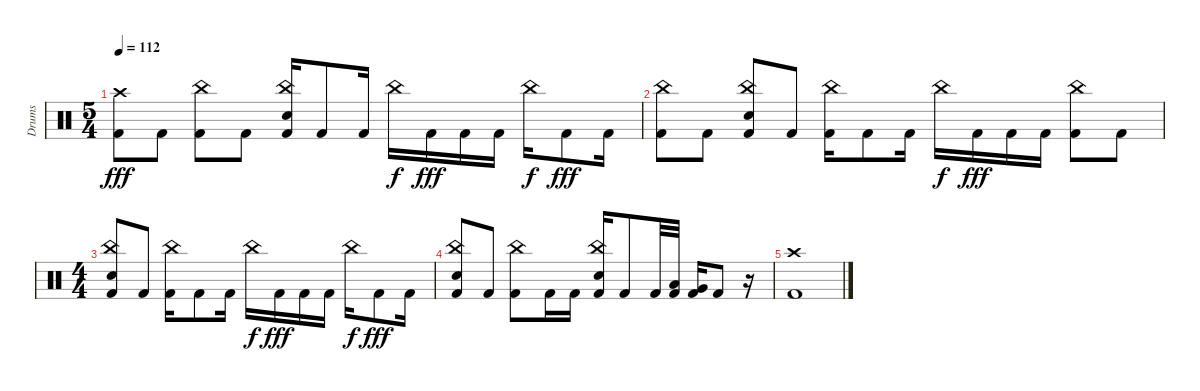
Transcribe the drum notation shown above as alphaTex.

\track ("Drums" "Drums") {instrument percussion}
\staff
\articulation defaults
\ts (5 4)
\tempo 112
\clef neutral
\ks c
("Crash high (hit)" "Kick (hit) 2").8{dy fff} "Kick (hit) 2".8 ("China (hit)" "Kick (hit) 2").8 "Kick (hit) 2".8 ("China (hit)" "Electric Snare (hit)" "Kick (hit) 2").16 "Kick (hit) 2".8 "Kick (hit) 2".16 "China (hit)".16{dy f} "Kick (hit) 2".16{dy fff} "Kick (hit) 2".16 "Kick (hit) 2".16 "China (hit)".16{dy f} "Kick (hit) 2".8{dy fff} "Kick (hit) 2".16 |
("China (hit)" "Kick (hit) 2").8 "Kick (hit) 2".8 ("China (hit)" "Electric Snare (hit)" "Kick (hit) 2").8 "Kick (hit) 2".8 ("China (hit)" "Kick (hit) 2").16 "Kick (hit) 2".8 "Kick (hit) 2".16 "China (hit)".16{dy f} "Kick (hit) 2".16{dy fff} "Kick (hit) 2".16 "Kick (hit) 2".16 ("China (hit)" "Kick (hit) 2").8 "Kick (hit) 2".8 |
\ts (4 4)
("China (hit)" "Electric Snare (hit)" "Kick (hit) 2").8 "Kick (hit) 2".8 ("China (hit)" "Kick (hit) 2").16 "Kick (hit) 2".8 "Kick (hit) 2".16 "China (hit)".16{dy f} "Kick (hit) 2".16{dy fff} "Kick (hit) 2".16 "Kick (hit) 2".16 "China (hit)".16{dy f} "Kick (hit) 2".8{dy fff} "Kick (hit) 2".16 |
("China (hit)" "Electric Snare (hit)" "Kick (hit) 2").8 "Kick (hit) 2".8 ("China (hit)" "Kick (hit) 2").8 "Kick (hit) 2".16 "Kick (hit) 2".16 ("China (hit)" "Electric Snare (hit)" "Kick (hit) 2").16 "Kick (hit) 2".8 "Kick (hit) 2".32 ("Low Tom (hit)" "Kick (hit) 2").32 ("Very Low Tom (hit)" "Kick (hit) 2").16 "Kick (hit) 2".8 r.16 |
("Crash high (hit)" "Kick (hit) 2").1
